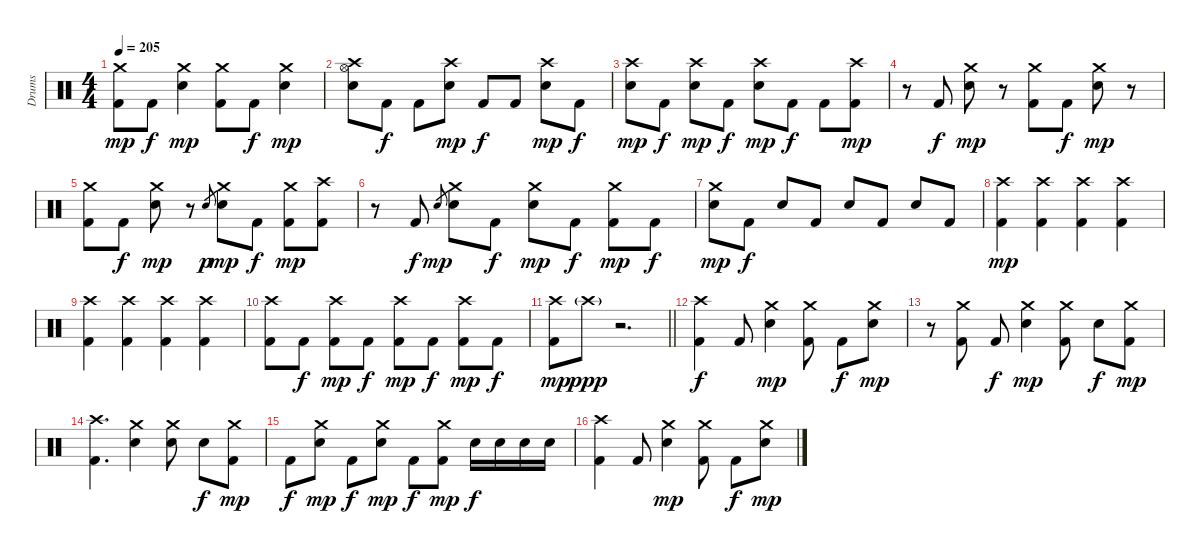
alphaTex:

\track ("Drums" "Drums") {instrument percussion}
\staff {score}
\articulation defaults
\ts (4 4)
\tempo 205
\clef neutral
\ks c
("Crash medium (hit)" "Kick (hit) 2").8{dy mp} "Kick (hit) 2".8{dy f} ("Crash medium (hit)" "Electric Snare (hit)").4{dy mp} ("Crash medium (hit)" "Kick (hit) 2").8 "Kick (hit) 2".8{dy f} ("Crash medium (hit)" "Electric Snare (hit)").4{dy mp} |
("Crash high (hit)" "Hi-Hat (open)" "Electric Snare (hit)").8 "Kick (hit) 2".8{dy f} "Kick (hit) 2".8 ("Crash high (hit)" "Electric Snare (hit)").8{dy mp} "Kick (hit) 2".8{dy f} "Kick (hit) 2".8 ("Crash high (hit)" "Electric Snare (hit)").8{dy mp} "Kick (hit) 2".8{dy f} |
("Crash high (hit)" "Electric Snare (hit)").8{dy mp} "Kick (hit) 2".8{dy f} ("Crash high (hit)" "Electric Snare (hit)").8{dy mp} "Kick (hit) 2".8{dy f} ("Crash high (hit)" "Electric Snare (hit)").8{dy mp} "Kick (hit) 2".8{dy f} "Kick (hit) 2".8 ("Crash high (hit)" "Kick (hit) 2").8{dy mp} |
r.8 "Kick (hit) 2".8{dy f} ("Crash medium (hit)" "Electric Snare (hit)").8{dy mp} r.8 ("Crash medium (hit)" "Kick (hit) 2").8 "Kick (hit) 2".8{dy f} ("Crash medium (hit)" "Electric Snare (hit)").8{dy mp} r.8 |
("Crash medium (hit)" "Kick (hit) 2").8 "Kick (hit) 2".8{dy f} ("Crash medium (hit)" "Electric Snare (hit)").8{dy mp} r.8 "Electric Snare (hit)".8{gr dy p} ("Crash medium (hit)" "Electric Snare (hit)").8{dy mp} "Kick (hit) 2".8{dy f} ("Crash medium (hit)" "Kick (hit) 2").8{dy mp} ("Crash high (hit)" "Kick (hit) 2").8 |
r.8 "Kick (hit) 2".8{dy f} "Electric Snare (hit)".8{gr dy mp} ("Crash medium (hit)" "Electric Snare (hit)").8 "Kick (hit) 2".8{dy f} ("Crash medium (hit)" "Electric Snare (hit)").8{dy mp} "Kick (hit) 2".8{dy f} ("Crash medium (hit)" "Kick (hit) 2").8{dy mp} "Kick (hit) 2".8{dy f} |
("Crash medium (hit)" "Electric Snare (hit)").8{dy mp} "Kick (hit) 2".8{dy f} "Electric Snare (hit)".8 "Kick (hit) 2".8 "Electric Snare (hit)".8 "Kick (hit) 2".8 "Electric Snare (hit)".8 "Kick (hit) 2".8 |
("Crash high (hit)" "Kick (hit) 2").4{dy mp} ("Crash high (hit)" "Kick (hit) 2").4 ("Crash high (hit)" "Kick (hit) 2").4 ("Crash high (hit)" "Kick (hit) 2").4 |
("Crash high (hit)" "Kick (hit) 2").4 ("Crash high (hit)" "Kick (hit) 2").4 ("Crash high (hit)" "Kick (hit) 2").4 ("Crash high (hit)" "Kick (hit) 2").4 |
("Crash high (hit)" "Kick (hit) 2").8 "Kick (hit) 2".8{dy f} ("Crash high (hit)" "Kick (hit) 2").8{dy mp} "Kick (hit) 2".8{dy f} ("Crash high (hit)" "Kick (hit) 2").8{dy mp} "Kick (hit) 2".8{dy f} ("Crash high (hit)" "Kick (hit) 2").8{dy mp} "Kick (hit) 2".8{dy f} |
\barLineRight lightlight
("Crash high (hit)" "Kick (hit) 2").8{dy mp} "Crash high (hit)"{g}.8{dy ppp} r.2{d} |
("Crash high (hit)" "Kick (hit) 2").4{dy f} "Kick (hit) 2".8 ("Crash medium (hit)" "Electric Snare (hit)").4{dy mp} ("Crash medium (hit)" "Kick (hit) 2").8 "Kick (hit) 2".8{dy f} ("Crash medium (hit)" "Electric Snare (hit)").8{dy mp} |
r.8 ("Crash medium (hit)" "Kick (hit) 2").8 "Kick (hit) 2".8{dy f} ("Crash medium (hit)" "Electric Snare (hit)").4{dy mp} ("Crash medium (hit)" "Kick (hit) 2").8 "Electric Snare (hit)".8{dy f} ("Crash medium (hit)" "Kick (hit) 2").8{dy mp} |
("Crash high (hit)" "Kick (hit) 2").4{d} ("Crash medium (hit)" "Electric Snare (hit)").4 ("Crash medium (hit)" "Electric Snare (hit)").8 "Electric Snare (hit)".8{dy f} ("Crash medium (hit)" "Kick (hit) 2").8{dy mp} |
"Kick (hit) 2".8{dy f} ("Crash medium (hit)" "Electric Snare (hit)").8{dy mp} "Kick (hit) 2".8{dy f} ("Crash medium (hit)" "Electric Snare (hit)").8{dy mp} "Kick (hit) 2".8{dy f} ("Crash medium (hit)" "Kick (hit) 2").8{dy mp} "Electric Snare (hit)".16{dy f} "Electric Snare (hit)".16 "Electric Snare (hit)".16 "Electric Snare (hit)".16 |
("Crash high (hit)" "Kick (hit) 2").4 "Kick (hit) 2".8 ("Crash medium (hit)" "Electric Snare (hit)").4{dy mp} ("Crash medium (hit)" "Kick (hit) 2").8 "Kick (hit) 2".8{dy f} ("Crash medium (hit)" "Electric Snare (hit)").8{dy mp}
